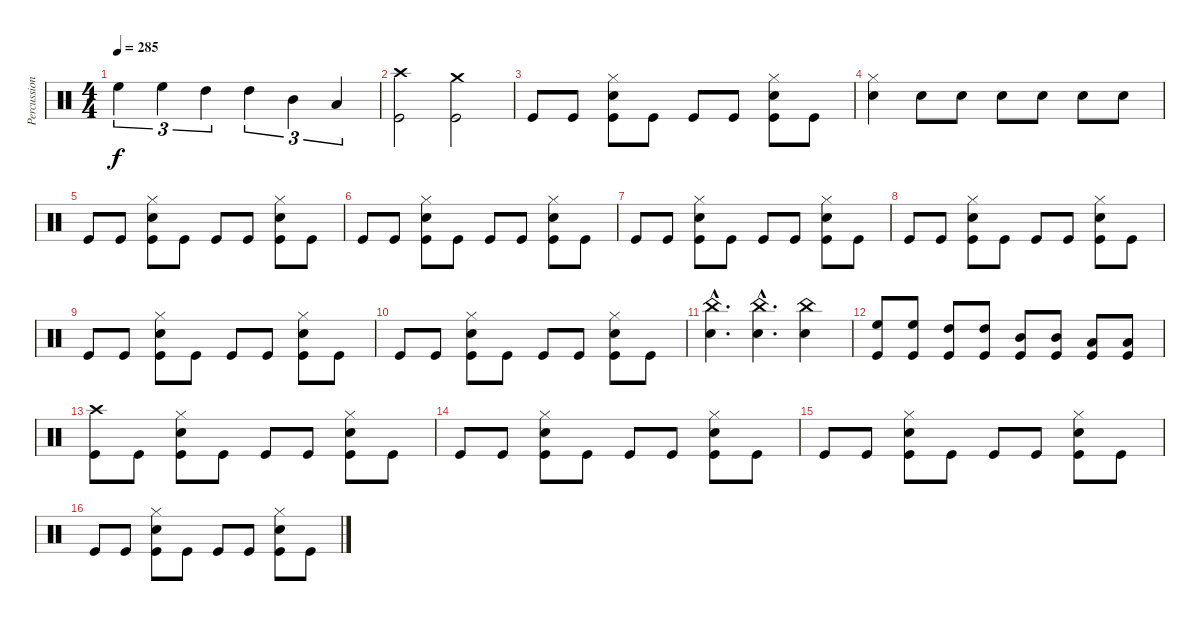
\track ("Percussion" "Percussion") {instrument percussion}
\staff {score}
\articulation defaults
\ts (4 4)
\tempo 285
\clef neutral
\ks c "High Floor Tom (hit)".4{tu (3 2) dy f} "High Floor Tom (hit)".4{tu (3 2)} "High Tom (hit)".4{tu (3 2)} "High Tom (hit)".4{tu (3 2)} "Mid Tom (hit)".4{tu (3 2)} "Low Tom (hit)".4{tu (3 2)}
|
("Crash high (hit)" "Kick (hit)").2 ("Crash medium (hit)" "Kick (hit)").2 |
"Kick (hit)".8 "Kick (hit)".8 ("Snare (hit) 2" "Hi-Hat (closed)" "Kick (hit)").8 "Kick (hit)".8 "Kick (hit)".8 "Kick (hit)".8 ("Snare (hit) 2" "Hi-Hat (closed)" "Kick (hit)").8 "Kick (hit)".8 |
("Snare (hit) 2" "Hi-Hat (closed)").4 "Snare (hit) 2".8 "Snare (hit) 2".8 "Snare (hit) 2".8 "Snare (hit) 2".8 "Snare (hit) 2".8 "Snare (hit) 2".8 |
"Kick (hit)".8 "Kick (hit)".8 ("Snare (hit) 2" "Hi-Hat (closed)" "Kick (hit)").8 "Kick (hit)".8 "Kick (hit)".8 "Kick (hit)".8 ("Snare (hit) 2" "Hi-Hat (closed)" "Kick (hit)").8 "Kick (hit)".8 |
"Kick (hit)".8 "Kick (hit)".8 ("Snare (hit) 2" "Hi-Hat (closed)" "Kick (hit)").8 "Kick (hit)".8 "Kick (hit)".8 "Kick (hit)".8 ("Snare (hit) 2" "Hi-Hat (closed)" "Kick (hit)").8 "Kick (hit)".8 |
"Kick (hit)".8 "Kick (hit)".8 ("Snare (hit) 2" "Hi-Hat (closed)" "Kick (hit)").8 "Kick (hit)".8 "Kick (hit)".8 "Kick (hit)".8 ("Snare (hit) 2" "Hi-Hat (closed)" "Kick (hit)").8 "Kick (hit)".8 |
"Kick (hit)".8 "Kick (hit)".8 ("Snare (hit) 2" "Hi-Hat (closed)" "Kick (hit)").8 "Kick (hit)".8 "Kick (hit)".8 "Kick (hit)".8 ("Snare (hit) 2" "Hi-Hat (closed)" "Kick (hit)").8 "Kick (hit)".8 |
"Kick (hit)".8 "Kick (hit)".8 ("Snare (hit) 2" "Hi-Hat (closed)" "Kick (hit)").8 "Kick (hit)".8 "Kick (hit)".8 "Kick (hit)".8 ("Snare (hit) 2" "Hi-Hat (closed)" "Kick (hit)").8 "Kick (hit)".8 |
"Kick (hit)".8 "Kick (hit)".8 ("Snare (hit) 2" "Hi-Hat (closed)" "Kick (hit)").8 "Kick (hit)".8 "Kick (hit)".8 "Kick (hit)".8 ("Snare (hit) 2" "Hi-Hat (closed)" "Kick (hit)").8 "Kick (hit)".8 |
("Snare (hit) 2"{hac} "China (hit)"{hac}).4{d} ("Snare (hit) 2"{hac} "China (hit)"{hac}).4{d} ("Snare (hit) 2" "China (hit)").4 |
("High Floor Tom (hit)" "Kick (hit)").8 ("High Floor Tom (hit)" "Kick (hit)").8 ("High Tom (hit)" "Kick (hit)").8 ("High Tom (hit)" "Kick (hit)").8 ("Mid Tom (hit)" "Kick (hit)").8 ("Mid Tom (hit)" "Kick (hit)").8 ("Low Tom (hit)" "Kick (hit)").8 ("Low Tom (hit)" "Kick (hit)").8 |
("Crash high (hit)" "Kick (hit)").8 "Kick (hit)".8 ("Snare (hit) 2" "Hi-Hat (closed)" "Kick (hit)").8 "Kick (hit)".8 "Kick (hit)".8 "Kick (hit)".8 ("Snare (hit) 2" "Hi-Hat (closed)" "Kick (hit)").8 "Kick (hit)".8 |
"Kick (hit)".8 "Kick (hit)".8 ("Snare (hit) 2" "Hi-Hat (closed)" "Kick (hit)").8 "Kick (hit)".8 "Kick (hit)".8 "Kick (hit)".8 ("Snare (hit) 2" "Hi-Hat (closed)" "Kick (hit)").8 "Kick (hit)".8 |
"Kick (hit)".8 "Kick (hit)".8 ("Snare (hit) 2" "Hi-Hat (closed)" "Kick (hit)").8 "Kick (hit)".8 "Kick (hit)".8 "Kick (hit)".8 ("Snare (hit) 2" "Hi-Hat (closed)" "Kick (hit)").8 "Kick (hit)".8 |
"Kick (hit)".8 "Kick (hit)".8 ("Snare (hit) 2" "Hi-Hat (closed)" "Kick (hit)").8 "Kick (hit)".8 "Kick (hit)".8 "Kick (hit)".8 ("Snare (hit) 2" "Hi-Hat (closed)" "Kick (hit)").8 "Kick (hit)".8
